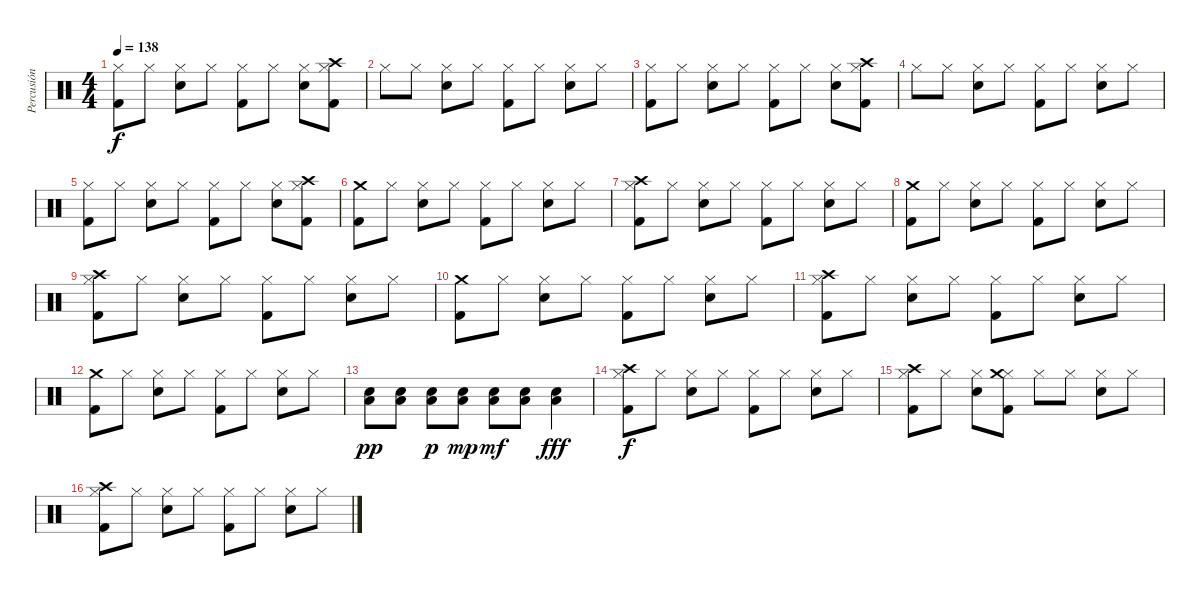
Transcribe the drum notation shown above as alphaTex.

\track ("Percusión" "Percusión") {instrument percussion bank 10}
\staff {score}
\articulation defaults
\ts (4 4)
\tempo 138
\clef neutral
\ks c
("Hi-Hat (closed)" "Kick (hit) 2").8{dy f} "Hi-Hat (closed)".8 ("Hi-Hat (closed)" "Snare (hit) 2").8 "Hi-Hat (closed)".8 ("Hi-Hat (closed)" "Kick (hit) 2").8 "Hi-Hat (closed)".8 ("Hi-Hat (closed)" "Snare (hit) 2").8 ("Hi-Hat (closed)" "Crash high (hit)" "Kick (hit) 2").8 |
"Hi-Hat (closed)".8 "Hi-Hat (closed)".8 ("Hi-Hat (closed)" "Snare (hit) 2").8 "Hi-Hat (closed)".8 ("Hi-Hat (closed)" "Kick (hit) 2").8 "Hi-Hat (closed)".8 ("Hi-Hat (closed)" "Snare (hit) 2").8 "Hi-Hat (closed)".8 |
("Hi-Hat (closed)" "Kick (hit) 2").8 "Hi-Hat (closed)".8 ("Hi-Hat (closed)" "Snare (hit) 2").8 "Hi-Hat (closed)".8 ("Hi-Hat (closed)" "Kick (hit) 2").8 "Hi-Hat (closed)".8 ("Hi-Hat (closed)" "Snare (hit) 2").8 ("Hi-Hat (closed)" "Crash high (hit)" "Kick (hit) 2").8 |
"Hi-Hat (closed)".8 "Hi-Hat (closed)".8 ("Hi-Hat (closed)" "Snare (hit) 2").8 "Hi-Hat (closed)".8 ("Hi-Hat (closed)" "Kick (hit) 2").8 "Hi-Hat (closed)".8 ("Hi-Hat (closed)" "Snare (hit) 2").8 "Hi-Hat (closed)".8 |
("Hi-Hat (closed)" "Kick (hit) 2").8 "Hi-Hat (closed)".8 ("Hi-Hat (closed)" "Snare (hit) 2").8 "Hi-Hat (closed)".8 ("Hi-Hat (closed)" "Kick (hit) 2").8 "Hi-Hat (closed)".8 ("Hi-Hat (closed)" "Snare (hit) 2").8 ("Hi-Hat (closed)" "Crash high (hit)" "Kick (hit) 2").8 |
("Kick (hit) 2" "Crash medium (hit)").8 "Hi-Hat (closed)".8 ("Hi-Hat (closed)" "Snare (hit) 2").8 "Hi-Hat (closed)".8 ("Hi-Hat (closed)" "Kick (hit) 2").8 "Hi-Hat (closed)".8 ("Hi-Hat (closed)" "Snare (hit) 2").8 "Hi-Hat (closed)".8 |
("Hi-Hat (closed)" "Kick (hit) 2" "Crash high (hit)").8 "Hi-Hat (closed)".8 ("Hi-Hat (closed)" "Snare (hit) 2").8 "Hi-Hat (closed)".8 ("Hi-Hat (closed)" "Kick (hit) 2").8 "Hi-Hat (closed)".8 ("Hi-Hat (closed)" "Snare (hit) 2").8 "Hi-Hat (closed)".8 |
("Kick (hit) 2" "Crash medium (hit)").8 "Hi-Hat (closed)".8 ("Hi-Hat (closed)" "Snare (hit) 2").8 "Hi-Hat (closed)".8 ("Hi-Hat (closed)" "Kick (hit) 2").8 "Hi-Hat (closed)".8 ("Hi-Hat (closed)" "Snare (hit) 2").8 "Hi-Hat (closed)".8 |
("Hi-Hat (closed)" "Kick (hit) 2" "Crash high (hit)").8 "Hi-Hat (closed)".8 ("Hi-Hat (closed)" "Snare (hit) 2").8 "Hi-Hat (closed)".8 ("Hi-Hat (closed)" "Kick (hit) 2").8 "Hi-Hat (closed)".8 ("Hi-Hat (closed)" "Snare (hit) 2").8 "Hi-Hat (closed)".8 |
("Kick (hit) 2" "Crash medium (hit)").8 "Hi-Hat (closed)".8 ("Hi-Hat (closed)" "Snare (hit) 2").8 "Hi-Hat (closed)".8 ("Hi-Hat (closed)" "Kick (hit) 2").8 "Hi-Hat (closed)".8 ("Hi-Hat (closed)" "Snare (hit) 2").8 "Hi-Hat (closed)".8 |
("Hi-Hat (closed)" "Kick (hit) 2" "Crash high (hit)").8 "Hi-Hat (closed)".8 ("Hi-Hat (closed)" "Snare (hit) 2").8 "Hi-Hat (closed)".8 ("Hi-Hat (closed)" "Kick (hit) 2").8 "Hi-Hat (closed)".8 ("Hi-Hat (closed)" "Snare (hit) 2").8 "Hi-Hat (closed)".8 |
("Kick (hit) 2" "Crash medium (hit)").8 "Hi-Hat (closed)".8 ("Hi-Hat (closed)" "Snare (hit) 2").8 "Hi-Hat (closed)".8 ("Hi-Hat (closed)" "Kick (hit) 2").8 "Hi-Hat (closed)".8 ("Hi-Hat (closed)" "Snare (hit) 2").8 "Hi-Hat (closed)".8 |
("Snare (hit) 2" "Low Floor Tom (hit)").8{dy pp} ("Snare (hit) 2" "Low Floor Tom (hit)").8 ("Snare (hit) 2" "Low Floor Tom (hit)").8{dy p} ("Snare (hit) 2" "Low Floor Tom (hit)").8{dy mp} ("Snare (hit) 2" "Low Floor Tom (hit)").8{dy mf} ("Snare (hit) 2" "Low Floor Tom (hit)").8 ("Snare (hit) 2" "Low Floor Tom (hit)").4{dy fff} |
("Hi-Hat (closed)" "Crash high (hit)" "Kick (hit) 2").8{dy f} "Hi-Hat (closed)".8 ("Hi-Hat (closed)" "Snare (hit) 2").8 "Hi-Hat (closed)".8 ("Hi-Hat (closed)" "Kick (hit) 2").8 "Hi-Hat (closed)".8 ("Hi-Hat (closed)" "Snare (hit) 2").8 "Hi-Hat (closed)".8 |
("Hi-Hat (closed)" "Crash high (hit)" "Kick (hit) 2").8 "Hi-Hat (closed)".8 ("Hi-Hat (closed)" "Snare (hit) 2").8 ("Hi-Hat (closed)" "Crash medium (hit)" "Kick (hit) 2").8 "Hi-Hat (closed)".8 "Hi-Hat (closed)".8 ("Hi-Hat (closed)" "Snare (hit) 2").8 "Hi-Hat (closed)".8 |
("Hi-Hat (closed)" "Crash high (hit)" "Kick (hit) 2").8 "Hi-Hat (closed)".8 ("Hi-Hat (closed)" "Snare (hit) 2").8 "Hi-Hat (closed)".8 ("Hi-Hat (closed)" "Kick (hit) 2").8 "Hi-Hat (closed)".8 ("Hi-Hat (closed)" "Snare (hit) 2").8 "Hi-Hat (closed)".8
